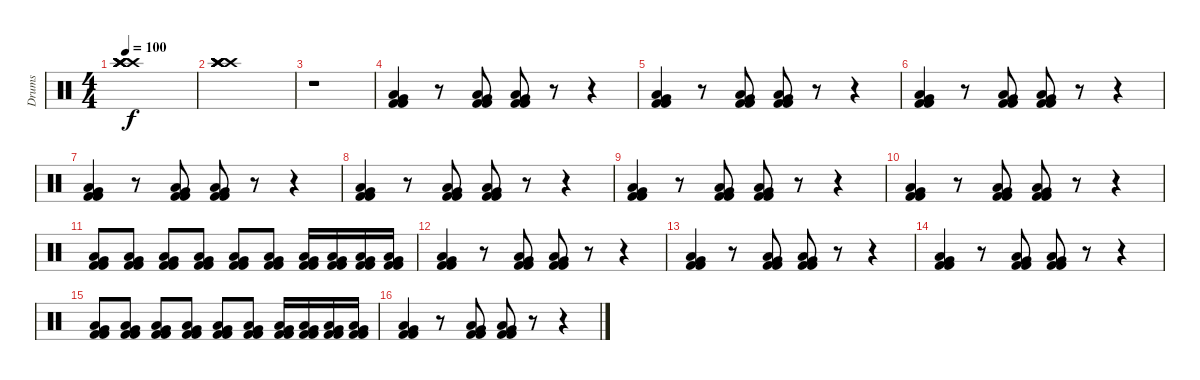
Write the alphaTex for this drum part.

\track ("Drums" "Drums") {instrument percussion}
\staff {score}
\articulation defaults
\ts (4 4)
\tempo 100
\clef neutral
\ks c
("Crash high (hit)" "Crash high (hit)" "Crash high (hit)" "Crash high (hit)" "Crash high (hit)" "Crash high (hit)").1{dy f} |
("Crash high (hit)" "Crash high (hit)" "Crash high (hit)" "Crash high (hit)" "Crash high (hit)" "Crash high (hit)").1 |
r.1 |
("Kick (hit) 2" "Low Floor Tom (hit)" "Very Low Tom (hit)" "Kick (hit) 2").4 r.8 ("Kick (hit) 2" "Low Floor Tom (hit)" "Very Low Tom (hit)" "Kick (hit) 2").8 ("Kick (hit) 2" "Low Floor Tom (hit)" "Very Low Tom (hit)" "Kick (hit) 2").8 r.8 r.4 |
("Kick (hit) 2" "Low Floor Tom (hit)" "Very Low Tom (hit)" "Kick (hit) 2").4 r.8 ("Kick (hit) 2" "Low Floor Tom (hit)" "Very Low Tom (hit)" "Kick (hit) 2").8 ("Kick (hit) 2" "Low Floor Tom (hit)" "Very Low Tom (hit)" "Kick (hit) 2").8 r.8 r.4 |
("Kick (hit) 2" "Low Floor Tom (hit)" "Very Low Tom (hit)" "Kick (hit) 2").4 r.8 ("Kick (hit) 2" "Low Floor Tom (hit)" "Very Low Tom (hit)" "Kick (hit) 2").8 ("Kick (hit) 2" "Low Floor Tom (hit)" "Very Low Tom (hit)" "Kick (hit) 2").8 r.8 r.4 |
("Kick (hit) 2" "Low Floor Tom (hit)" "Very Low Tom (hit)" "Kick (hit) 2").4 r.8 ("Kick (hit) 2" "Low Floor Tom (hit)" "Very Low Tom (hit)" "Kick (hit) 2").8 ("Kick (hit) 2" "Low Floor Tom (hit)" "Very Low Tom (hit)" "Kick (hit) 2").8 r.8 r.4 |
("Kick (hit) 2" "Low Floor Tom (hit)" "Very Low Tom (hit)" "Kick (hit) 2").4 r.8 ("Kick (hit) 2" "Low Floor Tom (hit)" "Very Low Tom (hit)" "Kick (hit) 2").8 ("Kick (hit) 2" "Low Floor Tom (hit)" "Very Low Tom (hit)" "Kick (hit) 2").8 r.8 r.4 |
("Kick (hit) 2" "Low Floor Tom (hit)" "Very Low Tom (hit)" "Kick (hit) 2").4 r.8 ("Kick (hit) 2" "Low Floor Tom (hit)" "Very Low Tom (hit)" "Kick (hit) 2").8 ("Kick (hit) 2" "Low Floor Tom (hit)" "Very Low Tom (hit)" "Kick (hit) 2").8 r.8 r.4 |
("Kick (hit) 2" "Low Floor Tom (hit)" "Very Low Tom (hit)" "Kick (hit) 2").4 r.8 ("Kick (hit) 2" "Low Floor Tom (hit)" "Very Low Tom (hit)" "Kick (hit) 2").8 ("Kick (hit) 2" "Low Floor Tom (hit)" "Very Low Tom (hit)" "Kick (hit) 2").8 r.8 r.4 |
("Kick (hit) 2" "Kick (hit) 2" "Low Floor Tom (hit)" "Very Low Tom (hit)").8 ("Kick (hit) 2" "Kick (hit) 2" "Low Floor Tom (hit)" "Very Low Tom (hit)").8 ("Kick (hit) 2" "Kick (hit) 2" "Low Floor Tom (hit)" "Very Low Tom (hit)").8 ("Kick (hit) 2" "Kick (hit) 2" "Low Floor Tom (hit)" "Very Low Tom (hit)").8 ("Kick (hit) 2" "Kick (hit) 2" "Low Floor Tom (hit)" "Very Low Tom (hit)").8 ("Kick (hit) 2" "Kick (hit) 2" "Low Floor Tom (hit)" "Very Low Tom (hit)").8 ("Kick (hit) 2" "Kick (hit) 2" "Low Floor Tom (hit)" "Very Low Tom (hit)").16 ("Kick (hit) 2" "Kick (hit) 2" "Low Floor Tom (hit)" "Very Low Tom (hit)").16 ("Kick (hit) 2" "Kick (hit) 2" "Low Floor Tom (hit)" "Very Low Tom (hit)").16 ("Kick (hit) 2" "Kick (hit) 2" "Low Floor Tom (hit)" "Very Low Tom (hit)").16 |
("Kick (hit) 2" "Low Floor Tom (hit)" "Very Low Tom (hit)" "Kick (hit) 2").4 r.8 ("Kick (hit) 2" "Low Floor Tom (hit)" "Very Low Tom (hit)" "Kick (hit) 2").8 ("Kick (hit) 2" "Low Floor Tom (hit)" "Very Low Tom (hit)" "Kick (hit) 2").8 r.8 r.4 |
("Kick (hit) 2" "Low Floor Tom (hit)" "Very Low Tom (hit)" "Kick (hit) 2").4 r.8 ("Kick (hit) 2" "Low Floor Tom (hit)" "Very Low Tom (hit)" "Kick (hit) 2").8 ("Kick (hit) 2" "Low Floor Tom (hit)" "Very Low Tom (hit)" "Kick (hit) 2").8 r.8 r.4 |
("Kick (hit) 2" "Low Floor Tom (hit)" "Very Low Tom (hit)" "Kick (hit) 2").4 r.8 ("Kick (hit) 2" "Low Floor Tom (hit)" "Very Low Tom (hit)" "Kick (hit) 2").8 ("Kick (hit) 2" "Low Floor Tom (hit)" "Very Low Tom (hit)" "Kick (hit) 2").8 r.8 r.4 |
("Kick (hit) 2" "Kick (hit) 2" "Low Floor Tom (hit)" "Very Low Tom (hit)").8 ("Kick (hit) 2" "Kick (hit) 2" "Low Floor Tom (hit)" "Very Low Tom (hit)").8 ("Kick (hit) 2" "Kick (hit) 2" "Low Floor Tom (hit)" "Very Low Tom (hit)").8 ("Kick (hit) 2" "Kick (hit) 2" "Low Floor Tom (hit)" "Very Low Tom (hit)").8 ("Kick (hit) 2" "Kick (hit) 2" "Low Floor Tom (hit)" "Very Low Tom (hit)").8 ("Kick (hit) 2" "Kick (hit) 2" "Low Floor Tom (hit)" "Very Low Tom (hit)").8 ("Kick (hit) 2" "Kick (hit) 2" "Low Floor Tom (hit)" "Very Low Tom (hit)").16 ("Kick (hit) 2" "Kick (hit) 2" "Low Floor Tom (hit)" "Very Low Tom (hit)").16 ("Kick (hit) 2" "Kick (hit) 2" "Low Floor Tom (hit)" "Very Low Tom (hit)").16 ("Kick (hit) 2" "Kick (hit) 2" "Low Floor Tom (hit)" "Very Low Tom (hit)").16 |
("Kick (hit) 2" "Low Floor Tom (hit)" "Very Low Tom (hit)" "Kick (hit) 2").4 r.8 ("Kick (hit) 2" "Low Floor Tom (hit)" "Very Low Tom (hit)" "Kick (hit) 2").8 ("Kick (hit) 2" "Low Floor Tom (hit)" "Very Low Tom (hit)" "Kick (hit) 2").8 r.8 r.4
